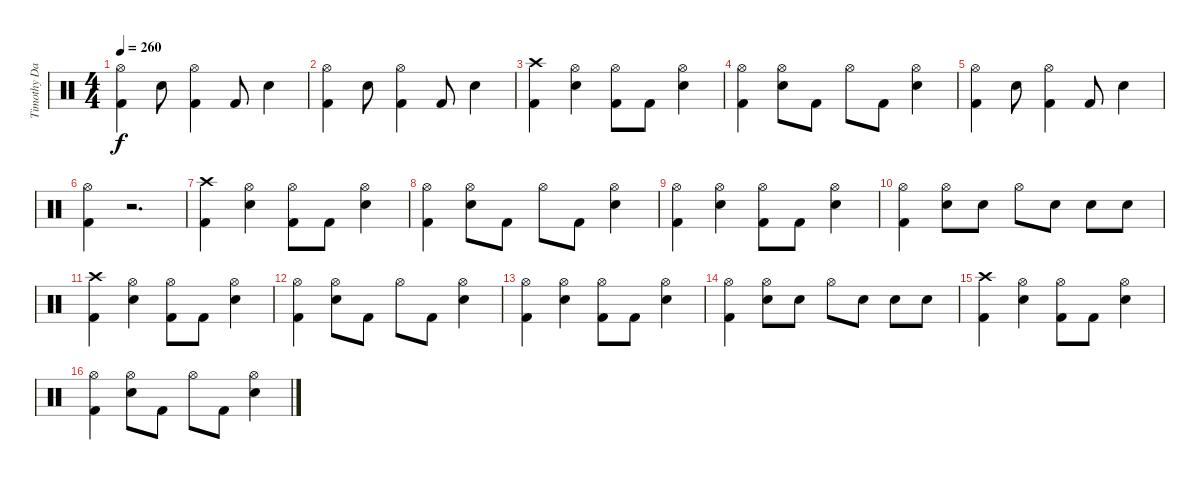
\track ("Timothy David Bollinger" "Timothy Da") {instrument percussion}
\staff {score}
\articulation defaults
\ts (4 4)
\tempo 260
\clef neutral
\ks c
("Hi-Hat (open)" "Kick (hit) 2").4{dy f} "Electric Snare (hit)".8 ("Hi-Hat (open)" "Kick (hit) 2").4 "Kick (hit) 2".8 "Electric Snare (hit)".4 |
("Hi-Hat (open)" "Kick (hit) 2").4 "Electric Snare (hit)".8 ("Hi-Hat (open)" "Kick (hit) 2").4 "Kick (hit) 2".8 "Electric Snare (hit)".4 |
("Crash high (hit)" "Kick (hit) 2").4 ("Hi-Hat (open)" "Electric Snare (hit)").4 ("Hi-Hat (open)" "Kick (hit) 2").8 "Kick (hit) 2".8 ("Hi-Hat (open)" "Electric Snare (hit)").4 |
("Hi-Hat (open)" "Kick (hit) 2").4 ("Hi-Hat (open)" "Electric Snare (hit)").8 "Kick (hit) 2".8 "Hi-Hat (open)".8 "Kick (hit) 2".8 ("Hi-Hat (open)" "Electric Snare (hit)").4 |
("Hi-Hat (open)" "Kick (hit) 2").4 "Electric Snare (hit)".8 ("Hi-Hat (open)" "Kick (hit) 2").4 "Kick (hit) 2".8 "Electric Snare (hit)".4 |
("Hi-Hat (open)" "Kick (hit) 2").4 r.2{d} |
("Crash high (hit)" "Kick (hit) 2").4 ("Hi-Hat (open)" "Electric Snare (hit)").4 ("Hi-Hat (open)" "Kick (hit) 2").8 "Kick (hit) 2".8 ("Hi-Hat (open)" "Electric Snare (hit)").4 |
("Hi-Hat (open)" "Kick (hit) 2").4 ("Hi-Hat (open)" "Electric Snare (hit)").8 "Kick (hit) 2".8 "Hi-Hat (open)".8 "Kick (hit) 2".8 ("Hi-Hat (open)" "Electric Snare (hit)").4 |
("Hi-Hat (open)" "Kick (hit) 2").4 ("Hi-Hat (open)" "Electric Snare (hit)").4 ("Hi-Hat (open)" "Kick (hit) 2").8 "Kick (hit) 2".8 ("Hi-Hat (open)" "Electric Snare (hit)").4 |
("Hi-Hat (open)" "Kick (hit) 2").4 ("Hi-Hat (open)" "Electric Snare (hit)").8 "Electric Snare (hit)".8 "Hi-Hat (open)".8 "Electric Snare (hit)".8 "Electric Snare (hit)".8 "Electric Snare (hit)".8 |
("Crash high (hit)" "Kick (hit) 2").4 ("Hi-Hat (open)" "Electric Snare (hit)").4 ("Hi-Hat (open)" "Kick (hit) 2").8 "Kick (hit) 2".8 ("Hi-Hat (open)" "Electric Snare (hit)").4 |
("Hi-Hat (open)" "Kick (hit) 2").4 ("Hi-Hat (open)" "Electric Snare (hit)").8 "Kick (hit) 2".8 "Hi-Hat (open)".8 "Kick (hit) 2".8 ("Hi-Hat (open)" "Electric Snare (hit)").4 |
("Hi-Hat (open)" "Kick (hit) 2").4 ("Hi-Hat (open)" "Electric Snare (hit)").4 ("Hi-Hat (open)" "Kick (hit) 2").8 "Kick (hit) 2".8 ("Hi-Hat (open)" "Electric Snare (hit)").4 |
("Hi-Hat (open)" "Kick (hit) 2").4 ("Hi-Hat (open)" "Electric Snare (hit)").8 "Electric Snare (hit)".8 "Hi-Hat (open)".8 "Electric Snare (hit)".8 "Electric Snare (hit)".8 "Electric Snare (hit)".8 |
("Crash high (hit)" "Kick (hit) 2").4 ("Hi-Hat (open)" "Electric Snare (hit)").4 ("Hi-Hat (open)" "Kick (hit) 2").8 "Kick (hit) 2".8 ("Hi-Hat (open)" "Electric Snare (hit)").4 |
("Hi-Hat (open)" "Kick (hit) 2").4 ("Hi-Hat (open)" "Electric Snare (hit)").8 "Kick (hit) 2".8 "Hi-Hat (open)".8 "Kick (hit) 2".8 ("Hi-Hat (open)" "Electric Snare (hit)").4
